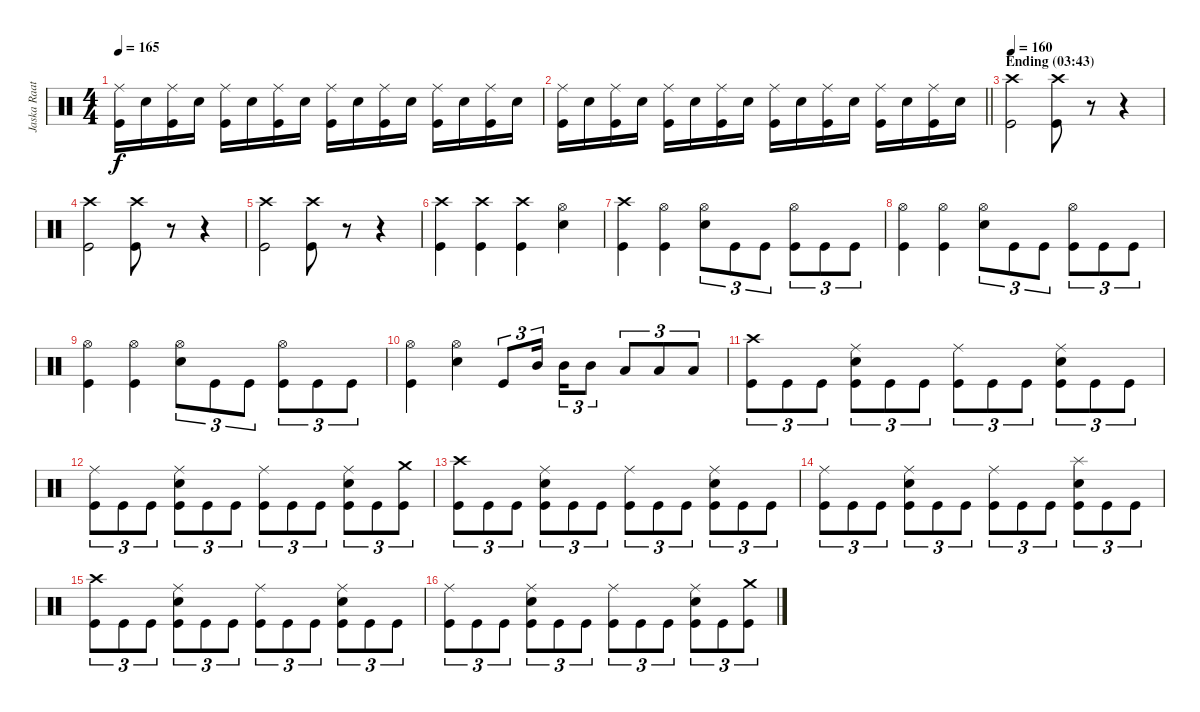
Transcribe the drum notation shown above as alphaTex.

\track ("Jaska Raatikainen" "Jaska Raat") {instrument percussion}
\staff {score}
\articulation defaults
\ts (4 4)
\tempo 165
\clef neutral
\ks c
("Ride (middle)" "Kick (hit)").16{dy f} "Electric Snare (hit)".16 ("Ride (middle)" "Kick (hit)").16 "Electric Snare (hit)".16 ("Ride (middle)" "Kick (hit)").16 "Electric Snare (hit)".16 ("Ride (middle)" "Kick (hit)").16 "Electric Snare (hit)".16 ("Ride (middle)" "Kick (hit)").16 "Electric Snare (hit)".16 ("Ride (middle)" "Kick (hit)").16 "Electric Snare (hit)".16 ("Ride (middle)" "Kick (hit)").16 "Electric Snare (hit)".16 ("Ride (middle)" "Kick (hit)").16 "Electric Snare (hit)".16 |
\barLineRight lightlight
("Ride (middle)" "Kick (hit)").16 "Electric Snare (hit)".16 ("Ride (middle)" "Kick (hit)").16 "Electric Snare (hit)".16 ("Ride (middle)" "Kick (hit)").16 "Electric Snare (hit)".16 ("Ride (middle)" "Kick (hit)").16 "Electric Snare (hit)".16 ("Ride (middle)" "Kick (hit)").16 "Electric Snare (hit)".16 ("Ride (middle)" "Kick (hit)").16 "Electric Snare (hit)".16 ("Ride (middle)" "Kick (hit)").16 "Electric Snare (hit)".16 ("Ride (middle)" "Kick (hit)").16 "Electric Snare (hit)".16 |
\section ("" "Ending (03:43)")
\tempo 155
\tempo 160
("Crash high (hit)" "Kick (hit)").2 ("Crash high (hit)" "Kick (hit)").8 r.8 r.4 |
("Crash high (hit)" "Kick (hit)").2 ("Crash high (hit)" "Kick (hit)").8 r.8 r.4 |
("Crash high (hit)" "Kick (hit)").2 ("Crash high (hit)" "Kick (hit)").8 r.8 r.4 |
("Crash high (hit)" "Kick (hit)").4 ("Crash high (hit)" "Kick (hit)").4 ("Crash high (hit)" "Kick (hit)").4 ("Hi-Hat (open)" "Electric Snare (hit)").4 |
("Crash high (hit)" "Kick (hit)").4 ("Hi-Hat (open)" "Kick (hit)").4 ("Hi-Hat (open)" "Electric Snare (hit)").8{tu (3 2)} "Kick (hit)".8{tu (3 2)} "Kick (hit)".8{tu (3 2)} ("Hi-Hat (open)" "Kick (hit)").8{tu (3 2)} "Kick (hit)".8{tu (3 2)} "Kick (hit)".8{tu (3 2)} |
("Hi-Hat (open)" "Kick (hit)").4 ("Hi-Hat (open)" "Kick (hit)").4 ("Hi-Hat (open)" "Electric Snare (hit)").8{tu (3 2)} "Kick (hit)".8{tu (3 2)} "Kick (hit)".8{tu (3 2)} ("Hi-Hat (open)" "Kick (hit)").8{tu (3 2)} "Kick (hit)".8{tu (3 2)} "Kick (hit)".8{tu (3 2)} |
("Hi-Hat (open)" "Kick (hit)").4 ("Hi-Hat (open)" "Kick (hit)").4 ("Hi-Hat (open)" "Electric Snare (hit)").8{tu (3 2)} "Kick (hit)".8{tu (3 2)} "Kick (hit)".8{tu (3 2)} ("Hi-Hat (open)" "Kick (hit)").8{tu (3 2)} "Kick (hit)".8{tu (3 2)} "Kick (hit)".8{tu (3 2)} |
("Hi-Hat (open)" "Kick (hit)").4 ("Hi-Hat (open)" "Electric Snare (hit)").4 "Kick (hit)".8{tu (3 2)} "Mid Tom (hit)".16{tu (3 2) beam splitsecondary} "Mid Tom (hit)".16{tu (3 2)} "Mid Tom (hit)".8{tu (3 2)} "Low Tom (hit)".8{tu (3 2)} "Low Tom (hit)".8{tu (3 2)} "Low Tom (hit)".8{tu (3 2)} |
("Crash high (hit)" "Kick (hit)").8{tu (3 2)} "Kick (hit)".8{tu (3 2)} "Kick (hit)".8{tu (3 2)} ("Ride (middle)" "Electric Snare (hit)" "Kick (hit)").8{tu (3 2)} "Kick (hit)".8{tu (3 2)} "Kick (hit)".8{tu (3 2)} ("Ride (middle)" "Kick (hit)").8{tu (3 2)} "Kick (hit)".8{tu (3 2)} "Kick (hit)".8{tu (3 2)} ("Ride (middle)" "Electric Snare (hit)" "Kick (hit)").8{tu (3 2)} "Kick (hit)".8{tu (3 2)} "Kick (hit)".8{tu (3 2)} |
("Ride (middle)" "Kick (hit)").8{tu (3 2)} "Kick (hit)".8{tu (3 2)} "Kick (hit)".8{tu (3 2)} ("Ride (middle)" "Electric Snare (hit)" "Kick (hit)").8{tu (3 2)} "Kick (hit)".8{tu (3 2)} "Kick (hit)".8{tu (3 2)} ("Ride (middle)" "Kick (hit)").8{tu (3 2)} "Kick (hit)".8{tu (3 2)} "Kick (hit)".8{tu (3 2)} ("Ride (middle)" "Electric Snare (hit)" "Kick (hit)").8{tu (3 2)} "Kick (hit)".8{tu (3 2)} ("Crash medium (hit)" "Kick (hit)").8{tu (3 2)} |
("Crash high (hit)" "Kick (hit)").8{tu (3 2)} "Kick (hit)".8{tu (3 2)} "Kick (hit)".8{tu (3 2)} ("Ride (middle)" "Electric Snare (hit)" "Kick (hit)").8{tu (3 2)} "Kick (hit)".8{tu (3 2)} "Kick (hit)".8{tu (3 2)} ("Ride (middle)" "Kick (hit)").8{tu (3 2)} "Kick (hit)".8{tu (3 2)} "Kick (hit)".8{tu (3 2)} ("Ride (middle)" "Electric Snare (hit)" "Kick (hit)").8{tu (3 2)} "Kick (hit)".8{tu (3 2)} "Kick (hit)".8{tu (3 2)} |
("Ride (middle)" "Kick (hit)").8{tu (3 2)} "Kick (hit)".8{tu (3 2)} "Kick (hit)".8{tu (3 2)} ("Ride (middle)" "Electric Snare (hit)" "Kick (hit)").8{tu (3 2)} "Kick (hit)".8{tu (3 2)} "Kick (hit)".8{tu (3 2)} ("Ride (middle)" "Kick (hit)").8{tu (3 2)} "Kick (hit)".8{tu (3 2)} "Kick (hit)".8{tu (3 2)} ("Splash (hit)" "Electric Snare (hit)" "Kick (hit)").8{tu (3 2)} "Kick (hit)".8{tu (3 2)} "Kick (hit)".8{tu (3 2)} |
("Crash high (hit)" "Kick (hit)").8{tu (3 2)} "Kick (hit)".8{tu (3 2)} "Kick (hit)".8{tu (3 2)} ("Ride (middle)" "Electric Snare (hit)" "Kick (hit)").8{tu (3 2)} "Kick (hit)".8{tu (3 2)} "Kick (hit)".8{tu (3 2)} ("Ride (middle)" "Kick (hit)").8{tu (3 2)} "Kick (hit)".8{tu (3 2)} "Kick (hit)".8{tu (3 2)} ("Ride (middle)" "Electric Snare (hit)" "Kick (hit)").8{tu (3 2)} "Kick (hit)".8{tu (3 2)} "Kick (hit)".8{tu (3 2)} |
("Ride (middle)" "Kick (hit)").8{tu (3 2)} "Kick (hit)".8{tu (3 2)} "Kick (hit)".8{tu (3 2)} ("Ride (middle)" "Electric Snare (hit)" "Kick (hit)").8{tu (3 2)} "Kick (hit)".8{tu (3 2)} "Kick (hit)".8{tu (3 2)} ("Ride (middle)" "Kick (hit)").8{tu (3 2)} "Kick (hit)".8{tu (3 2)} "Kick (hit)".8{tu (3 2)} ("Ride (middle)" "Electric Snare (hit)" "Kick (hit)").8{tu (3 2)} "Kick (hit)".8{tu (3 2)} ("Crash medium (hit)" "Kick (hit)").8{tu (3 2)}
